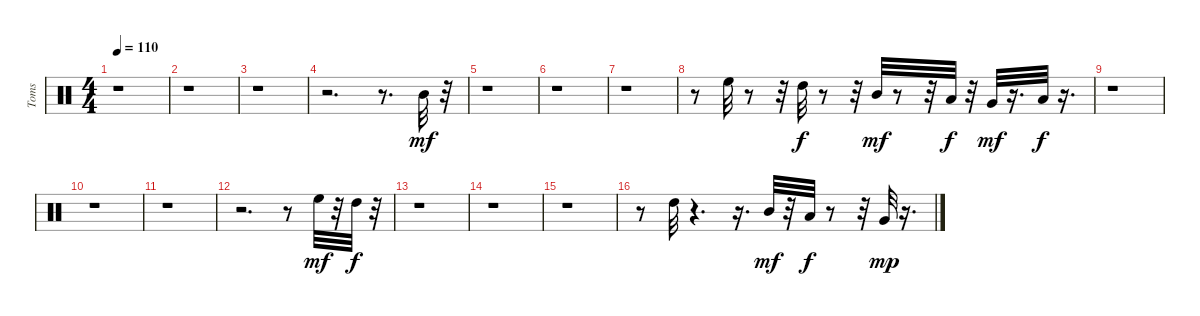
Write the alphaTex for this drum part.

\track ("Toms" "Toms") {instrument percussion}
\staff {score}
\articulation defaults
\ts (4 4)
\tempo 110
\clef neutral
\ks c
r.1{dy f} |
r.1 |
r.1 |
r.2{d} r.8{d} "Mid Tom (hit)".32{dy mf} r.32 |
r.1 |
r.1 |
r.1 |
r.8 "High Floor Tom (hit)".32 r.8 r.32 "High Tom (hit)".32{dy f} r.8 r.32 "Mid Tom (hit)".32{dy mf} r.8 r.32 "Low Tom (hit)".32{dy f} r.32 "Very Low Tom (hit)".32{dy mf} r.16{d} "Low Floor Tom (hit)".32{dy f} r.16{d} |
r.1 |
r.1 |
r.1 |
r.2{d} r.8 "High Floor Tom (hit)".32{dy mf} r.32 "High Tom (hit)".32{dy f} r.32 |
r.1 |
r.1 |
r.1 |
r.8 "High Tom (hit)".32 r.4{d} r.16{d} "Mid Tom (hit)".32{dy mf} r.32 "Low Tom (hit)".32{dy f} r.8 r.32 "Very Low Tom (hit)".32{dy mp} r.16{d}
